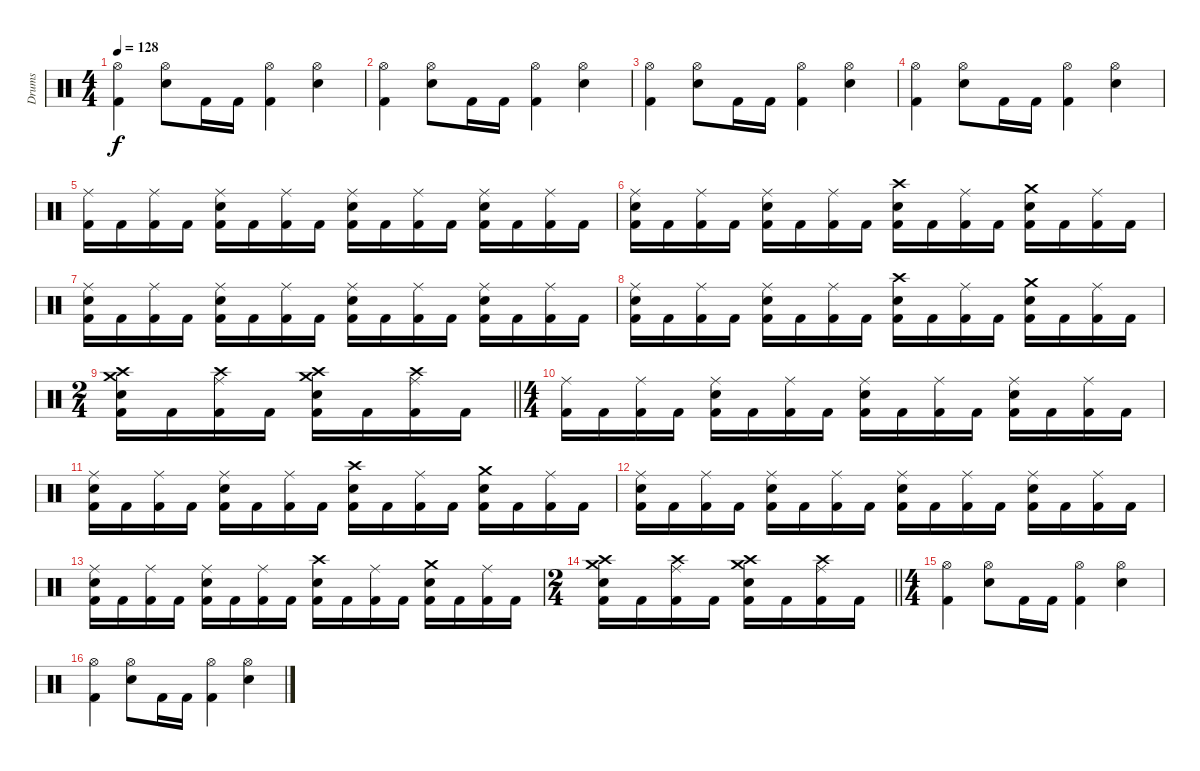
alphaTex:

\track ("Drums" "Drums") {instrument percussion}
\staff {score}
\articulation defaults
\ts (4 4)
\tempo 128
\clef neutral
\ks c
("Hi-Hat (open)" "Kick (hit) 2").4{dy f} ("Hi-Hat (open)" "Snare (hit) 2").8 "Kick (hit) 2".16 "Kick (hit) 2".16 ("Hi-Hat (open)" "Kick (hit) 2").4 ("Hi-Hat (open)" "Snare (hit) 2").4 |
("Hi-Hat (open)" "Kick (hit) 2").4 ("Hi-Hat (open)" "Snare (hit) 2").8 "Kick (hit) 2".16 "Kick (hit) 2".16 ("Hi-Hat (open)" "Kick (hit) 2").4 ("Hi-Hat (open)" "Snare (hit) 2").4 |
("Hi-Hat (open)" "Kick (hit) 2").4 ("Hi-Hat (open)" "Snare (hit) 2").8 "Kick (hit) 2".16 "Kick (hit) 2".16 ("Hi-Hat (open)" "Kick (hit) 2").4 ("Hi-Hat (open)" "Snare (hit) 2").4 |
("Hi-Hat (open)" "Kick (hit) 2").4 ("Hi-Hat (open)" "Snare (hit) 2").8 "Kick (hit) 2".16 "Kick (hit) 2".16 ("Hi-Hat (open)" "Kick (hit) 2").4 ("Hi-Hat (open)" "Snare (hit) 2").4 |
("Ride (middle)" "Kick (hit) 2").16 "Kick (hit) 2".16 ("Ride (middle)" "Kick (hit) 2").16 "Kick (hit) 2".16 ("Ride (middle)" "Snare (hit) 2" "Kick (hit) 2").16 "Kick (hit) 2".16 ("Ride (middle)" "Kick (hit) 2").16 "Kick (hit) 2".16 ("Ride (middle)" "Snare (hit) 2" "Kick (hit) 2").16 "Kick (hit) 2".16 ("Ride (middle)" "Kick (hit) 2").16 "Kick (hit) 2".16 ("Ride (middle)" "Snare (hit) 2" "Kick (hit) 2").16 "Kick (hit) 2".16 ("Ride (middle)" "Kick (hit) 2").16 "Kick (hit) 2".16 |
("Ride (middle)" "Snare (hit) 2" "Kick (hit) 2").16 "Kick (hit) 2".16 ("Ride (middle)" "Kick (hit) 2").16 "Kick (hit) 2".16 ("Ride (middle)" "Snare (hit) 2" "Kick (hit) 2").16 "Kick (hit) 2".16 ("Ride (middle)" "Kick (hit) 2").16 "Kick (hit) 2".16 ("Crash high (hit)" "Snare (hit) 2" "Kick (hit) 2").16 "Kick (hit) 2".16 ("Ride (middle)" "Kick (hit) 2").16 "Kick (hit) 2".16 ("Crash medium (hit)" "Snare (hit) 2" "Kick (hit) 2").16 "Kick (hit) 2".16 ("Ride (middle)" "Kick (hit) 2").16 "Kick (hit) 2".16 |
("Ride (middle)" "Snare (hit) 2" "Kick (hit) 2").16 "Kick (hit) 2".16 ("Ride (middle)" "Kick (hit) 2").16 "Kick (hit) 2".16 ("Ride (middle)" "Snare (hit) 2" "Kick (hit) 2").16 "Kick (hit) 2".16 ("Ride (middle)" "Kick (hit) 2").16 "Kick (hit) 2".16 ("Ride (middle)" "Snare (hit) 2" "Kick (hit) 2").16 "Kick (hit) 2".16 ("Ride (middle)" "Kick (hit) 2").16 "Kick (hit) 2".16 ("Ride (middle)" "Snare (hit) 2" "Kick (hit) 2").16 "Kick (hit) 2".16 ("Ride (middle)" "Kick (hit) 2").16 "Kick (hit) 2".16 |
("Ride (middle)" "Snare (hit) 2" "Kick (hit) 2").16 "Kick (hit) 2".16 ("Ride (middle)" "Kick (hit) 2").16 "Kick (hit) 2".16 ("Ride (middle)" "Snare (hit) 2" "Kick (hit) 2").16 "Kick (hit) 2".16 ("Ride (middle)" "Kick (hit) 2").16 "Kick (hit) 2".16 ("Crash high (hit)" "Snare (hit) 2" "Kick (hit) 2").16 "Kick (hit) 2".16 ("Ride (middle)" "Kick (hit) 2").16 "Kick (hit) 2".16 ("Crash medium (hit)" "Snare (hit) 2" "Kick (hit) 2").16 "Kick (hit) 2".16 ("Ride (middle)" "Kick (hit) 2").16 "Kick (hit) 2".16 |
\ts (2 4)
\barLineRight lightlight
("Crash high (hit)" "Crash medium (hit)" "Snare (hit) 2" "Kick (hit) 2").16 "Kick (hit) 2".16 ("Ride (middle)" "Crash high (hit)" "Kick (hit) 2").16 "Kick (hit) 2".16 ("Crash medium (hit)" "Crash high (hit)" "Snare (hit) 2" "Kick (hit) 2").16 "Kick (hit) 2".16 ("Ride (middle)" "Crash high (hit)" "Kick (hit) 2").16 "Kick (hit) 2".16 |
\ts (4 4)
("Ride (middle)" "Kick (hit) 2").16 "Kick (hit) 2".16 ("Ride (middle)" "Kick (hit) 2").16 "Kick (hit) 2".16 ("Ride (middle)" "Snare (hit) 2" "Kick (hit) 2").16 "Kick (hit) 2".16 ("Ride (middle)" "Kick (hit) 2").16 "Kick (hit) 2".16 ("Ride (middle)" "Snare (hit) 2" "Kick (hit) 2").16 "Kick (hit) 2".16 ("Ride (middle)" "Kick (hit) 2").16 "Kick (hit) 2".16 ("Ride (middle)" "Snare (hit) 2" "Kick (hit) 2").16 "Kick (hit) 2".16 ("Ride (middle)" "Kick (hit) 2").16 "Kick (hit) 2".16 |
("Ride (middle)" "Snare (hit) 2" "Kick (hit) 2").16 "Kick (hit) 2".16 ("Ride (middle)" "Kick (hit) 2").16 "Kick (hit) 2".16 ("Ride (middle)" "Snare (hit) 2" "Kick (hit) 2").16 "Kick (hit) 2".16 ("Ride (middle)" "Kick (hit) 2").16 "Kick (hit) 2".16 ("Crash high (hit)" "Snare (hit) 2" "Kick (hit) 2").16 "Kick (hit) 2".16 ("Ride (middle)" "Kick (hit) 2").16 "Kick (hit) 2".16 ("Crash medium (hit)" "Snare (hit) 2" "Kick (hit) 2").16 "Kick (hit) 2".16 ("Ride (middle)" "Kick (hit) 2").16 "Kick (hit) 2".16 |
("Ride (middle)" "Snare (hit) 2" "Kick (hit) 2").16 "Kick (hit) 2".16 ("Ride (middle)" "Kick (hit) 2").16 "Kick (hit) 2".16 ("Ride (middle)" "Snare (hit) 2" "Kick (hit) 2").16 "Kick (hit) 2".16 ("Ride (middle)" "Kick (hit) 2").16 "Kick (hit) 2".16 ("Ride (middle)" "Snare (hit) 2" "Kick (hit) 2").16 "Kick (hit) 2".16 ("Ride (middle)" "Kick (hit) 2").16 "Kick (hit) 2".16 ("Ride (middle)" "Snare (hit) 2" "Kick (hit) 2").16 "Kick (hit) 2".16 ("Ride (middle)" "Kick (hit) 2").16 "Kick (hit) 2".16 |
("Ride (middle)" "Snare (hit) 2" "Kick (hit) 2").16 "Kick (hit) 2".16 ("Ride (middle)" "Kick (hit) 2").16 "Kick (hit) 2".16 ("Ride (middle)" "Snare (hit) 2" "Kick (hit) 2").16 "Kick (hit) 2".16 ("Ride (middle)" "Kick (hit) 2").16 "Kick (hit) 2".16 ("Crash high (hit)" "Snare (hit) 2" "Kick (hit) 2").16 "Kick (hit) 2".16 ("Ride (middle)" "Kick (hit) 2").16 "Kick (hit) 2".16 ("Crash medium (hit)" "Snare (hit) 2" "Kick (hit) 2").16 "Kick (hit) 2".16 ("Ride (middle)" "Kick (hit) 2").16 "Kick (hit) 2".16 |
\ts (2 4)
\barLineRight lightlight
("Crash high (hit)" "Crash medium (hit)" "Snare (hit) 2" "Kick (hit) 2").16 "Kick (hit) 2".16 ("Ride (middle)" "Crash high (hit)" "Kick (hit) 2").16 "Kick (hit) 2".16 ("Crash medium (hit)" "Crash high (hit)" "Snare (hit) 2" "Kick (hit) 2").16 "Kick (hit) 2".16 ("Ride (middle)" "Crash high (hit)" "Kick (hit) 2").16 "Kick (hit) 2".16 |
\ts (4 4)
("Hi-Hat (open)" "Kick (hit) 2").4 ("Hi-Hat (open)" "Snare (hit) 2").8 "Kick (hit) 2".16 "Kick (hit) 2".16 ("Hi-Hat (open)" "Kick (hit) 2").4 ("Hi-Hat (open)" "Snare (hit) 2").4 |
("Hi-Hat (open)" "Kick (hit) 2").4 ("Hi-Hat (open)" "Snare (hit) 2").8 "Kick (hit) 2".16 "Kick (hit) 2".16 ("Hi-Hat (open)" "Kick (hit) 2").4 ("Hi-Hat (open)" "Snare (hit) 2").4
